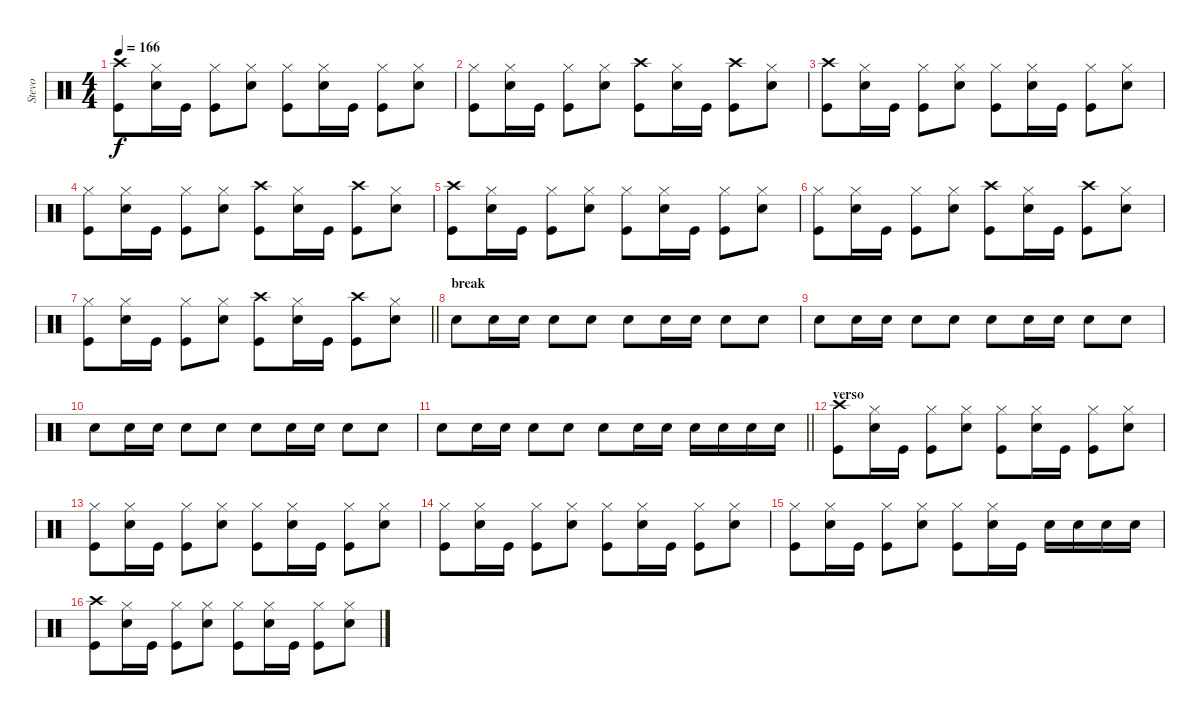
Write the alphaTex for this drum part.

\track ("Stevo" "Stevo") {instrument percussion}
\staff {score}
\articulation defaults
\ts (4 4)
\tempo 166
\clef neutral
\ks c
("Crash high (hit)" "Kick (hit)").8{dy f} ("Hi-Hat (closed)" "Electric Snare (hit)").16 "Kick (hit)".16 ("Hi-Hat (closed)" "Kick (hit)").8 ("Hi-Hat (closed)" "Electric Snare (hit)").8 ("Hi-Hat (closed)" "Kick (hit)").8 ("Hi-Hat (closed)" "Electric Snare (hit)").16 "Kick (hit)".16 ("Hi-Hat (closed)" "Kick (hit)").8 ("Hi-Hat (closed)" "Electric Snare (hit)").8 |
("Hi-Hat (closed)" "Kick (hit)").8 ("Hi-Hat (closed)" "Electric Snare (hit)").16 "Kick (hit)".16 ("Hi-Hat (closed)" "Kick (hit)").8 ("Hi-Hat (closed)" "Electric Snare (hit)").8 ("Crash high (hit)" "Kick (hit)").8 ("Hi-Hat (closed)" "Electric Snare (hit)").16 "Kick (hit)".16 ("Crash high (hit)" "Kick (hit)").8 ("Hi-Hat (closed)" "Electric Snare (hit)").8 |
("Crash high (hit)" "Kick (hit)").8 ("Hi-Hat (closed)" "Electric Snare (hit)").16 "Kick (hit)".16 ("Hi-Hat (closed)" "Kick (hit)").8 ("Hi-Hat (closed)" "Electric Snare (hit)").8 ("Hi-Hat (closed)" "Kick (hit)").8 ("Hi-Hat (closed)" "Electric Snare (hit)").16 "Kick (hit)".16 ("Hi-Hat (closed)" "Kick (hit)").8 ("Hi-Hat (closed)" "Electric Snare (hit)").8 |
("Hi-Hat (closed)" "Kick (hit)").8 ("Hi-Hat (closed)" "Electric Snare (hit)").16 "Kick (hit)".16 ("Hi-Hat (closed)" "Kick (hit)").8 ("Hi-Hat (closed)" "Electric Snare (hit)").8 ("Crash high (hit)" "Kick (hit)").8 ("Hi-Hat (closed)" "Electric Snare (hit)").16 "Kick (hit)".16 ("Crash high (hit)" "Kick (hit)").8 ("Hi-Hat (closed)" "Electric Snare (hit)").8 |
("Crash high (hit)" "Kick (hit)").8 ("Hi-Hat (closed)" "Electric Snare (hit)").16 "Kick (hit)".16 ("Hi-Hat (closed)" "Kick (hit)").8 ("Hi-Hat (closed)" "Electric Snare (hit)").8 ("Hi-Hat (closed)" "Kick (hit)").8 ("Hi-Hat (closed)" "Electric Snare (hit)").16 "Kick (hit)".16 ("Hi-Hat (closed)" "Kick (hit)").8 ("Hi-Hat (closed)" "Electric Snare (hit)").8 |
("Hi-Hat (closed)" "Kick (hit)").8 ("Hi-Hat (closed)" "Electric Snare (hit)").16 "Kick (hit)".16 ("Hi-Hat (closed)" "Kick (hit)").8 ("Hi-Hat (closed)" "Electric Snare (hit)").8 ("Crash high (hit)" "Kick (hit)").8 ("Hi-Hat (closed)" "Electric Snare (hit)").16 "Kick (hit)".16 ("Crash high (hit)" "Kick (hit)").8 ("Hi-Hat (closed)" "Electric Snare (hit)").8 |
\barLineRight lightlight
("Hi-Hat (closed)" "Kick (hit)").8 ("Hi-Hat (closed)" "Electric Snare (hit)").16 "Kick (hit)".16 ("Hi-Hat (closed)" "Kick (hit)").8 ("Hi-Hat (closed)" "Electric Snare (hit)").8 ("Crash high (hit)" "Kick (hit)").8 ("Hi-Hat (closed)" "Electric Snare (hit)").16 "Kick (hit)".16 ("Crash high (hit)" "Kick (hit)").8 ("Hi-Hat (closed)" "Electric Snare (hit)").8 |
\section ("" "break")
"Electric Snare (hit)".8 "Electric Snare (hit)".16 "Electric Snare (hit)".16 "Electric Snare (hit)".8 "Electric Snare (hit)".8 "Electric Snare (hit)".8 "Electric Snare (hit)".16 "Electric Snare (hit)".16 "Electric Snare (hit)".8 "Electric Snare (hit)".8 |
"Electric Snare (hit)".8 "Electric Snare (hit)".16 "Electric Snare (hit)".16 "Electric Snare (hit)".8 "Electric Snare (hit)".8 "Electric Snare (hit)".8 "Electric Snare (hit)".16 "Electric Snare (hit)".16 "Electric Snare (hit)".8 "Electric Snare (hit)".8 |
"Electric Snare (hit)".8 "Electric Snare (hit)".16 "Electric Snare (hit)".16 "Electric Snare (hit)".8 "Electric Snare (hit)".8 "Electric Snare (hit)".8 "Electric Snare (hit)".16 "Electric Snare (hit)".16 "Electric Snare (hit)".8 "Electric Snare (hit)".8 |
\barLineRight lightlight "Electric Snare (hit)".8 "Electric Snare (hit)".16 "Electric Snare (hit)".16 "Electric Snare (hit)".8 "Electric Snare (hit)".8 "Electric Snare (hit)".8 "Electric Snare (hit)".16 "Electric Snare (hit)".16 "Electric Snare (hit)".16 "Electric Snare (hit)".16 "Electric Snare (hit)".16 "Electric Snare (hit)".16
|
\section ("" "verso")
("Crash high (hit)" "Kick (hit)").8 ("Hi-Hat (closed)" "Electric Snare (hit)").16 "Kick (hit)".16 ("Hi-Hat (closed)" "Kick (hit)").8 ("Hi-Hat (closed)" "Electric Snare (hit)").8 ("Hi-Hat (closed)" "Kick (hit)").8 ("Hi-Hat (closed)" "Electric Snare (hit)").16 "Kick (hit)".16 ("Hi-Hat (closed)" "Kick (hit)").8 ("Hi-Hat (closed)" "Electric Snare (hit)").8 |
("Hi-Hat (closed)" "Kick (hit)").8 ("Hi-Hat (closed)" "Electric Snare (hit)").16 "Kick (hit)".16 ("Hi-Hat (closed)" "Kick (hit)").8 ("Hi-Hat (closed)" "Electric Snare (hit)").8 ("Hi-Hat (closed)" "Kick (hit)").8 ("Hi-Hat (closed)" "Electric Snare (hit)").16 "Kick (hit)".16 ("Hi-Hat (closed)" "Kick (hit)").8 ("Hi-Hat (closed)" "Electric Snare (hit)").8 |
("Hi-Hat (closed)" "Kick (hit)").8 ("Hi-Hat (closed)" "Electric Snare (hit)").16 "Kick (hit)".16 ("Hi-Hat (closed)" "Kick (hit)").8 ("Hi-Hat (closed)" "Electric Snare (hit)").8 ("Hi-Hat (closed)" "Kick (hit)").8 ("Hi-Hat (closed)" "Electric Snare (hit)").16 "Kick (hit)".16 ("Hi-Hat (closed)" "Kick (hit)").8 ("Hi-Hat (closed)" "Electric Snare (hit)").8 |
("Hi-Hat (closed)" "Kick (hit)").8 ("Hi-Hat (closed)" "Electric Snare (hit)").16 "Kick (hit)".16 ("Hi-Hat (closed)" "Kick (hit)").8 ("Hi-Hat (closed)" "Electric Snare (hit)").8 ("Hi-Hat (closed)" "Kick (hit)").8 ("Hi-Hat (closed)" "Electric Snare (hit)").16 "Kick (hit)".16 "Electric Snare (hit)".16 "Electric Snare (hit)".16 "Electric Snare (hit)".16 "Electric Snare (hit)".16 |
("Crash high (hit)" "Kick (hit)").8 ("Hi-Hat (closed)" "Electric Snare (hit)").16 "Kick (hit)".16 ("Hi-Hat (closed)" "Kick (hit)").8 ("Hi-Hat (closed)" "Electric Snare (hit)").8 ("Hi-Hat (closed)" "Kick (hit)").8 ("Hi-Hat (closed)" "Electric Snare (hit)").16 "Kick (hit)".16 ("Hi-Hat (closed)" "Kick (hit)").8 ("Hi-Hat (closed)" "Electric Snare (hit)").8
